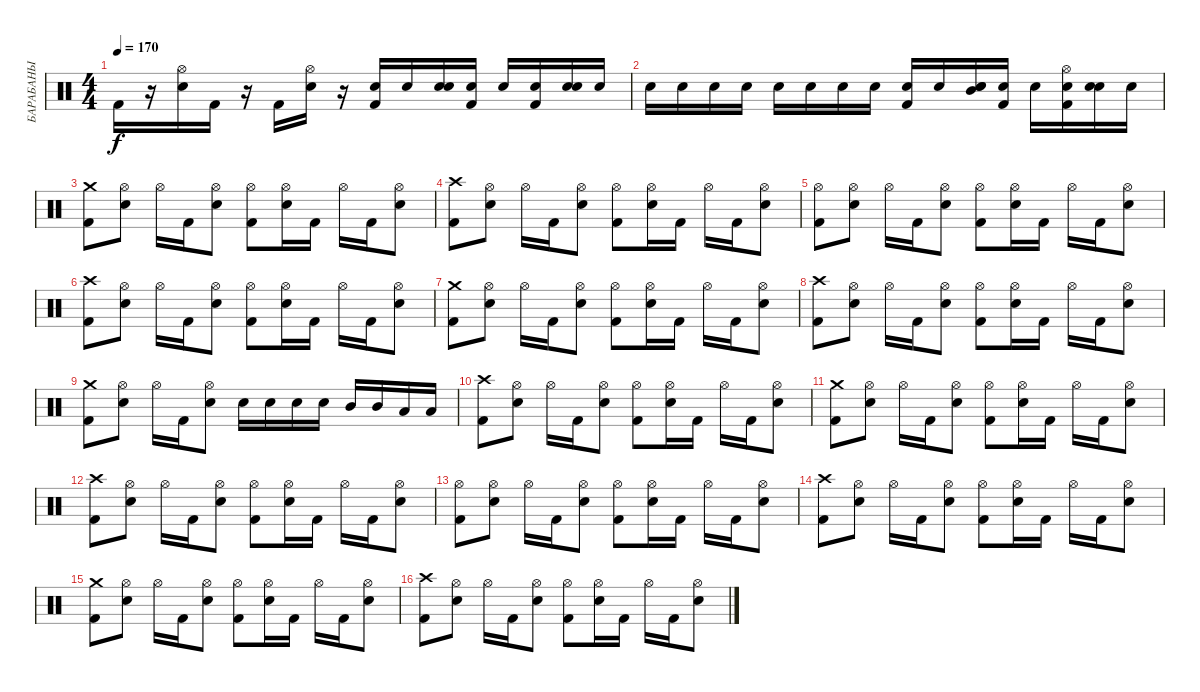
\track ("БАРАБАНЫ" "БАРАБАНЫ") {instrument percussion}
\staff {score}
\articulation defaults
\ts (4 4)
\tempo 170
\clef neutral
\ks c "Kick (hit) 2".16{dy f}
r.16 ("Electric Snare (hit)" "Hi-Hat (open)").16 "Kick (hit) 2".16 r.16 "Kick (hit) 2".16 ("Electric Snare (hit)" "Hi-Hat (open)").16 r.16 ("Kick (hit) 2" "Electric Snare (hit)").16 "Electric Snare (hit)".16 ("Electric Snare (hit)" "Electric Snare (hit)").16 ("Kick (hit) 2" "Electric Snare (hit)").16 "Electric Snare (hit)".16 ("Kick (hit) 2" "Electric Snare (hit)").16 ("Electric Snare (hit)" "Electric Snare (hit)").16 "Electric Snare (hit)".16 |
"Electric Snare (hit)".16 "Electric Snare (hit)".16 "Electric Snare (hit)".16 "Electric Snare (hit)".16 "Electric Snare (hit)".16 "Electric Snare (hit)".16 "Electric Snare (hit)".16 "Electric Snare (hit)".16 ("Kick (hit) 2" "Electric Snare (hit)").16 "Electric Snare (hit)".16 ("Electric Snare (hit)" "Mid Tom (hit)" "Electric Snare (hit)").16 ("Kick (hit) 2" "Electric Snare (hit)").16 "Electric Snare (hit)".16 ("Kick (hit) 2" "Hi-Hat (open)" "Electric Snare (hit)").16 ("Electric Snare (hit)" "Electric Snare (hit)").16 "Electric Snare (hit)".16 |
("Kick (hit) 2" "Crash medium (hit)").8 ("Electric Snare (hit)" "Hi-Hat (open)").8 "Hi-Hat (open)".16 "Kick (hit) 2".16 ("Electric Snare (hit)" "Hi-Hat (open)").8 ("Kick (hit) 2" "Hi-Hat (open)").8 ("Electric Snare (hit)" "Hi-Hat (open)").16 "Kick (hit) 2".16 "Hi-Hat (open)".16 "Kick (hit) 2".16 ("Electric Snare (hit)" "Hi-Hat (open)").8 |
("Kick (hit) 2" "Crash high (hit)").8 ("Electric Snare (hit)" "Hi-Hat (open)").8 "Hi-Hat (open)".16 "Kick (hit) 2".16 ("Electric Snare (hit)" "Hi-Hat (open)").8 ("Kick (hit) 2" "Hi-Hat (open)").8 ("Electric Snare (hit)" "Hi-Hat (open)").16 "Kick (hit) 2".16 "Hi-Hat (open)".16 "Kick (hit) 2".16 ("Electric Snare (hit)" "Hi-Hat (open)").8 |
("Kick (hit) 2" "Hi-Hat (open)").8 ("Electric Snare (hit)" "Hi-Hat (open)").8 "Hi-Hat (open)".16 "Kick (hit) 2".16 ("Electric Snare (hit)" "Hi-Hat (open)").8 ("Kick (hit) 2" "Hi-Hat (open)").8 ("Electric Snare (hit)" "Hi-Hat (open)").16 "Kick (hit) 2".16 "Hi-Hat (open)".16 "Kick (hit) 2".16 ("Electric Snare (hit)" "Hi-Hat (open)").8 |
("Kick (hit) 2" "Crash high (hit)").8 ("Electric Snare (hit)" "Hi-Hat (open)").8 "Hi-Hat (open)".16 "Kick (hit) 2".16 ("Electric Snare (hit)" "Hi-Hat (open)").8 ("Kick (hit) 2" "Hi-Hat (open)").8 ("Electric Snare (hit)" "Hi-Hat (open)").16 "Kick (hit) 2".16 "Hi-Hat (open)".16 "Kick (hit) 2".16 ("Electric Snare (hit)" "Hi-Hat (open)").8 |
("Kick (hit) 2" "Crash medium (hit)").8 ("Electric Snare (hit)" "Hi-Hat (open)").8 "Hi-Hat (open)".16 "Kick (hit) 2".16 ("Electric Snare (hit)" "Hi-Hat (open)").8 ("Kick (hit) 2" "Hi-Hat (open)").8 ("Electric Snare (hit)" "Hi-Hat (open)").16 "Kick (hit) 2".16 "Hi-Hat (open)".16 "Kick (hit) 2".16 ("Electric Snare (hit)" "Hi-Hat (open)").8 |
("Kick (hit) 2" "Crash high (hit)").8 ("Electric Snare (hit)" "Hi-Hat (open)").8 "Hi-Hat (open)".16 "Kick (hit) 2".16 ("Electric Snare (hit)" "Hi-Hat (open)").8 ("Kick (hit) 2" "Hi-Hat (open)").8 ("Electric Snare (hit)" "Hi-Hat (open)").16 "Kick (hit) 2".16 "Hi-Hat (open)".16 "Kick (hit) 2".16 ("Electric Snare (hit)" "Hi-Hat (open)").8 |
("Kick (hit) 2" "Crash medium (hit)").8 ("Electric Snare (hit)" "Hi-Hat (open)").8 "Hi-Hat (open)".16 "Kick (hit) 2".16 ("Electric Snare (hit)" "Hi-Hat (open)").8 "Electric Snare (hit)".16 "Electric Snare (hit)".16 "Electric Snare (hit)".16 "Electric Snare (hit)".16 "Mid Tom (hit)".16 "Mid Tom (hit)".16 "Low Tom (hit)".16 "Low Tom (hit)".16 |
("Kick (hit) 2" "Crash high (hit)").8 ("Electric Snare (hit)" "Hi-Hat (open)").8 "Hi-Hat (open)".16 "Kick (hit) 2".16 ("Electric Snare (hit)" "Hi-Hat (open)").8 ("Kick (hit) 2" "Hi-Hat (open)").8 ("Electric Snare (hit)" "Hi-Hat (open)").16 "Kick (hit) 2".16 "Hi-Hat (open)".16 "Kick (hit) 2".16 ("Electric Snare (hit)" "Hi-Hat (open)").8 |
("Kick (hit) 2" "Crash medium (hit)").8 ("Electric Snare (hit)" "Hi-Hat (open)").8 "Hi-Hat (open)".16 "Kick (hit) 2".16 ("Electric Snare (hit)" "Hi-Hat (open)").8 ("Kick (hit) 2" "Hi-Hat (open)").8 ("Electric Snare (hit)" "Hi-Hat (open)").16 "Kick (hit) 2".16 "Hi-Hat (open)".16 "Kick (hit) 2".16 ("Electric Snare (hit)" "Hi-Hat (open)").8 |
("Kick (hit) 2" "Crash high (hit)").8 ("Electric Snare (hit)" "Hi-Hat (open)").8 "Hi-Hat (open)".16 "Kick (hit) 2".16 ("Electric Snare (hit)" "Hi-Hat (open)").8 ("Kick (hit) 2" "Hi-Hat (open)").8 ("Electric Snare (hit)" "Hi-Hat (open)").16 "Kick (hit) 2".16 "Hi-Hat (open)".16 "Kick (hit) 2".16 ("Electric Snare (hit)" "Hi-Hat (open)").8 |
("Kick (hit) 2" "Hi-Hat (open)").8 ("Electric Snare (hit)" "Hi-Hat (open)").8 "Hi-Hat (open)".16 "Kick (hit) 2".16 ("Electric Snare (hit)" "Hi-Hat (open)").8 ("Kick (hit) 2" "Hi-Hat (open)").8 ("Electric Snare (hit)" "Hi-Hat (open)").16 "Kick (hit) 2".16 "Hi-Hat (open)".16 "Kick (hit) 2".16 ("Electric Snare (hit)" "Hi-Hat (open)").8 |
("Kick (hit) 2" "Crash high (hit)").8 ("Electric Snare (hit)" "Hi-Hat (open)").8 "Hi-Hat (open)".16 "Kick (hit) 2".16 ("Electric Snare (hit)" "Hi-Hat (open)").8 ("Kick (hit) 2" "Hi-Hat (open)").8 ("Electric Snare (hit)" "Hi-Hat (open)").16 "Kick (hit) 2".16 "Hi-Hat (open)".16 "Kick (hit) 2".16 ("Electric Snare (hit)" "Hi-Hat (open)").8 |
("Kick (hit) 2" "Crash medium (hit)").8 ("Electric Snare (hit)" "Hi-Hat (open)").8 "Hi-Hat (open)".16 "Kick (hit) 2".16 ("Electric Snare (hit)" "Hi-Hat (open)").8 ("Kick (hit) 2" "Hi-Hat (open)").8 ("Electric Snare (hit)" "Hi-Hat (open)").16 "Kick (hit) 2".16 "Hi-Hat (open)".16 "Kick (hit) 2".16 ("Electric Snare (hit)" "Hi-Hat (open)").8 |
("Kick (hit) 2" "Crash high (hit)").8 ("Electric Snare (hit)" "Hi-Hat (open)").8 "Hi-Hat (open)".16 "Kick (hit) 2".16 ("Electric Snare (hit)" "Hi-Hat (open)").8 ("Kick (hit) 2" "Hi-Hat (open)").8 ("Electric Snare (hit)" "Hi-Hat (open)").16 "Kick (hit) 2".16 "Hi-Hat (open)".16 "Kick (hit) 2".16 ("Electric Snare (hit)" "Hi-Hat (open)").8
